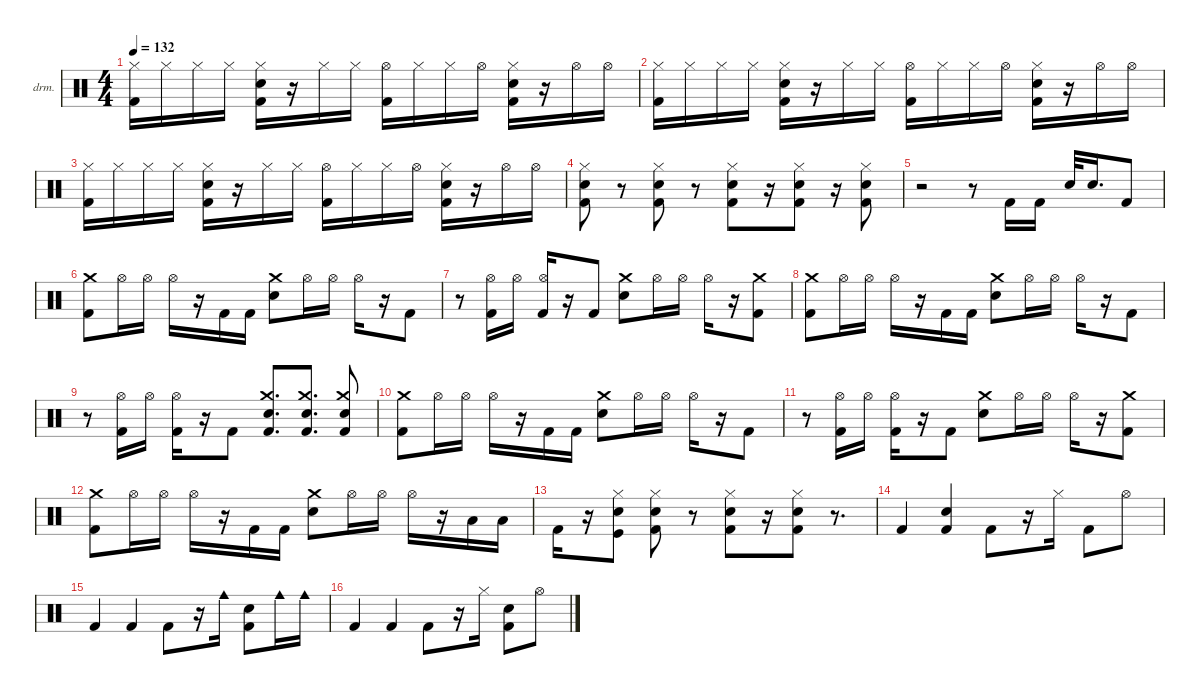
\defaultSystemsLayout 4
\hideDynamics
\bracketExtendMode nobrackets
\firstSystemTrackNameOrientation horizontal
\otherSystemsTrackNameOrientation horizontal
\track ("Drumkit" "drm.") {instrument percussion}
\staff {score}
\articulation defaults
\ts (4 4)
\tempo 132
\clef neutral
\ks c
("Kick (hit) 2" "Hi-Hat (closed)").16{dy mf beam Down} "Hi-Hat (closed)".16{beam Down} "Hi-Hat (closed)".16{beam Down} "Hi-Hat (closed)".16{beam Down} ("Hi-Hat (closed)" "Kick (hit) 2" "Snare (hit) 2").16{beam Down} r.16{beam Down} "Hi-Hat (closed)".16{beam Down} "Hi-Hat (closed)".16{beam Down} ("Hi-Hat (open)" "Kick (hit) 2").16{beam Down} "Hi-Hat (closed)".16{beam Down} "Hi-Hat (closed)".16{beam Down} "Hi-Hat (open)".16{beam Down} ("Hi-Hat (closed)" "Snare (hit) 2" "Kick (hit) 2").16{beam Down} r.16{beam Down} "Hi-Hat (open)".16{beam Down} "Hi-Hat (open)".16{beam Down} |
("Kick (hit) 2" "Hi-Hat (closed)").16{beam Down} "Hi-Hat (closed)".16{beam Down} "Hi-Hat (closed)".16{beam Down} "Hi-Hat (closed)".16{beam Down} ("Hi-Hat (closed)" "Kick (hit) 2" "Snare (hit) 2").16{beam Down} r.16{beam Down} "Hi-Hat (closed)".16{beam Down} "Hi-Hat (closed)".16{beam Down} ("Hi-Hat (open)" "Kick (hit) 2").16{beam Down} "Hi-Hat (closed)".16{beam Down} "Hi-Hat (closed)".16{beam Down} "Hi-Hat (open)".16{beam Down} ("Hi-Hat (closed)" "Snare (hit) 2" "Kick (hit) 2").16{beam Down} r.16{beam Down} "Hi-Hat (open)".16{beam Down} "Hi-Hat (open)".16{beam Down} |
("Kick (hit) 2" "Hi-Hat (closed)").16{beam Down} "Hi-Hat (closed)".16{beam Down} "Hi-Hat (closed)".16{beam Down} "Hi-Hat (closed)".16{beam Down} ("Hi-Hat (closed)" "Kick (hit) 2" "Snare (hit) 2").16{beam Down} r.16{beam Down} "Hi-Hat (closed)".16{beam Down} "Hi-Hat (closed)".16{beam Down} ("Hi-Hat (open)" "Kick (hit) 2").16{beam Down} "Hi-Hat (closed)".16{beam Down} "Hi-Hat (closed)".16{beam Down} "Hi-Hat (open)".16{beam Down} ("Hi-Hat (closed)" "Snare (hit) 2" "Kick (hit) 2").16{beam Down} r.16{beam Down} "Hi-Hat (open)".16{beam Down} "Hi-Hat (open)".16{beam Down} |
("Kick (hit) 2" "Snare (hit) 2" "Hi-Hat (closed)").8{beam Down} r.8{beam Down} ("Hi-Hat (closed)" "Snare (hit) 2" "Kick (hit) 2").8{beam Down} r.8{beam Down} ("Hi-Hat (closed)" "Kick (hit) 2" "Snare (hit) 2").8{beam Down} r.16{beam Down} ("Snare (hit) 2" "Kick (hit) 2" "Hi-Hat (closed)").8{beam Down} r.16{beam Down} ("Kick (hit) 2" "Snare (hit) 2" "Hi-Hat (closed)").8{beam Down} |
r.2{beam Down} r.8{beam Down} "Kick (hit) 2".16{beam Up} "Kick (hit) 2".16{beam Up} "Snare (hit) 2".32{beam Up} "Snare (hit) 2".16{d beam Up} "Kick (hit) 2".8{beam Up} |
("Kick (hit) 2" "Crash medium (hit)").8{beam Down} "Hi-Hat (open)".16{beam Down} "Hi-Hat (open)".16{beam Down} "Hi-Hat (open)".16{beam Down} r.16{beam Down} "Kick (hit) 2".16{beam Down} "Kick (hit) 2".16{beam Down} ("Crash medium (hit)" "Snare (hit) 2").8{beam Down} "Hi-Hat (open)".16{beam Down} "Hi-Hat (open)".16{beam Down} "Hi-Hat (open)".16{beam Down} r.16{beam Down} "Kick (hit) 2".8{beam Down} |
r.8{beam Down} ("Kick (hit) 2" "Hi-Hat (open)").16{beam Up} "Hi-Hat (open)".16{beam Up} ("Kick (hit) 2" "Hi-Hat (open)").16{beam Up} r.16{beam Up} "Kick (hit) 2".8{beam Up} ("Crash medium (hit)" "Snare (hit) 2").8{beam Down} "Hi-Hat (open)".16{beam Down} "Hi-Hat (open)".16{beam Down} "Hi-Hat (open)".16{beam Down} r.16{beam Down} ("Crash medium (hit)" "Kick (hit) 2").8{beam Down} |
("Kick (hit) 2" "Crash medium (hit)").8{beam Down} "Hi-Hat (open)".16{beam Down} "Hi-Hat (open)".16{beam Down} "Hi-Hat (open)".16{beam Down} r.16{beam Down} "Kick (hit) 2".16{beam Down} "Kick (hit) 2".16{beam Down} ("Snare (hit) 2" "Crash medium (hit)").8{beam Down} "Hi-Hat (open)".16{beam Down} "Hi-Hat (open)".16{beam Down} "Hi-Hat (open)".16{beam Down} r.16{beam Down} "Kick (hit) 2".8{beam Down} |
r.8{beam Down} ("Kick (hit) 2" "Hi-Hat (open)").16{beam Down} "Hi-Hat (open)".16{beam Down} ("Kick (hit) 2" "Hi-Hat (open)").16{beam Down} r.16{beam Down} "Kick (hit) 2".8{beam Down} ("Kick (hit) 2" "Snare (hit) 2" "Crash medium (hit)").8{d beam Up} ("Kick (hit) 2" "Snare (hit) 2" "Crash medium (hit)").8{d beam Up} ("Kick (hit) 2" "Snare (hit) 2" "Crash medium (hit)").8{beam Up} |
("Kick (hit) 2" "Crash medium (hit)").8{beam Down} "Hi-Hat (open)".16{beam Down} "Hi-Hat (open)".16{beam Down} "Hi-Hat (open)".16{beam Down} r.16{beam Down} "Kick (hit) 2".16{beam Down} "Kick (hit) 2".16{beam Down} ("Crash medium (hit)" "Snare (hit) 2").8{beam Down} "Hi-Hat (open)".16{beam Down} "Hi-Hat (open)".16{beam Down} "Hi-Hat (open)".16{beam Down} r.16{beam Down} "Kick (hit) 2".8{beam Down} |
r.8{beam Down} ("Kick (hit) 2" "Hi-Hat (open)").16{beam Down} "Hi-Hat (open)".16{beam Down} ("Kick (hit) 2" "Hi-Hat (open)").16{beam Down} r.16{beam Down} "Kick (hit) 2".8{beam Down} ("Crash medium (hit)" "Snare (hit) 2").8{beam Down} "Hi-Hat (open)".16{beam Down} "Hi-Hat (open)".16{beam Down} "Hi-Hat (open)".16{beam Down} r.16{beam Down} ("Crash medium (hit)" "Kick (hit) 2").8{beam Down} |
("Kick (hit) 2" "Crash medium (hit)").8{beam Down} "Hi-Hat (open)".16{beam Down} "Hi-Hat (open)".16{beam Down} "Hi-Hat (open)".16{beam Down} r.16{beam Down} "Kick (hit) 2".16{beam Down} "Kick (hit) 2".16{beam Down} ("Snare (hit) 2" "Crash medium (hit)").8{beam Down} "Hi-Hat (open)".16{beam Down} "Hi-Hat (open)".16{beam Down} "Hi-Hat (open)".16{beam Down} r.16{beam Down} "Low Tom (hit)".16{beam Down} "Low Tom (hit)".16{beam Down} |
"Kick (hit) 2".16{beam Down} r.16{beam Down} ("Kick (hit)" "Snare (hit) 2" "Hi-Hat (closed)").8{beam Down} ("Kick (hit) 2" "Snare (hit) 2" "Hi-Hat (closed)").8{beam Down} r.8{beam Down} ("Kick (hit) 2" "Snare (hit) 2" "Hi-Hat (closed)").8{beam Down} r.16{beam Down} ("Kick (hit) 2" "Snare (hit) 2" "Hi-Hat (closed)").8{beam Down} r.8{d beam Down} |
"Kick (hit) 2".4{beam Up} ("Kick (hit) 2" "Snare (hit) 2").4{beam Up} "Kick (hit) 2".8{beam Down} r.16{beam Down} "Hi-Hat (closed)".16{beam Down} "Kick (hit) 2".8{beam Down} "Hi-Hat (open)".8{beam Down} |
"Kick (hit) 2".4{beam Up} "Kick (hit) 2".4{beam Up} "Kick (hit) 2".8{beam Down} r.16{beam Down} "Cowbell medium (hit)".16{beam Down} ("Snare (hit) 2" "Kick (hit) 2").8{beam Down} "Cowbell medium (hit)".16{beam Down} "Cowbell medium (hit)".16{beam Down} |
"Kick (hit) 2".4{beam Up} "Kick (hit) 2".4{beam Up} "Kick (hit) 2".8{beam Down} r.16{beam Down} "Hi-Hat (closed)".16{beam Down} ("Kick (hit) 2" "Snare (hit) 2").8{beam Down} "Hi-Hat (open)".8{beam Down}
